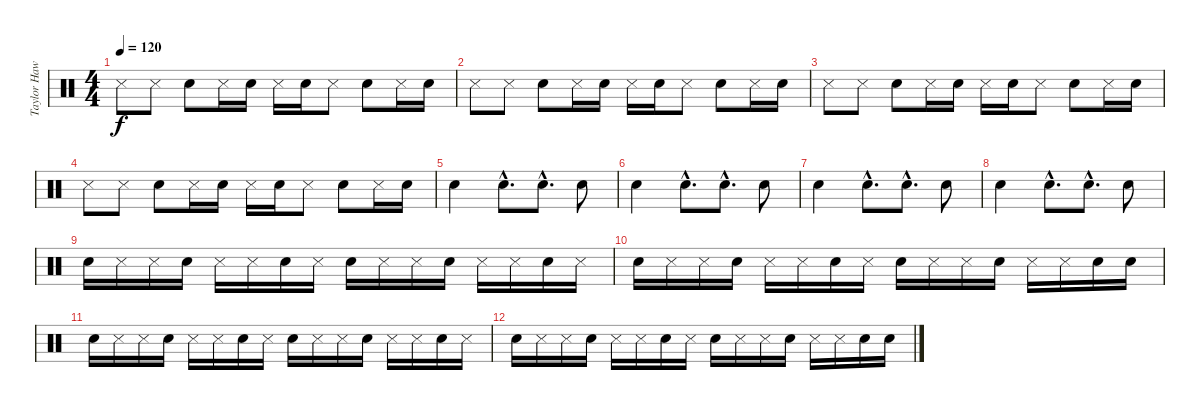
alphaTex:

\track ("Taylor Hawkins" "Taylor Haw") {instrument percussion}
\staff {score}
\articulation defaults
\ts (4 4)
\tempo 120
\clef neutral
\ks c "Metronome (hit)".8{dy f} "Metronome (hit)".8 "Metronome (bell)".8 "Metronome (hit)".16 "Metronome (bell)".16 "Metronome (hit)".16 "Metronome (bell)".16 "Metronome (hit)".8 "Metronome (bell)".8 "Metronome (hit)".16 "Metronome (bell)".16
|
"Metronome (hit)".8 "Metronome (hit)".8 "Metronome (bell)".8 "Metronome (hit)".16 "Metronome (bell)".16 "Metronome (hit)".16 "Metronome (bell)".16 "Metronome (hit)".8 "Metronome (bell)".8 "Metronome (hit)".16 "Metronome (bell)".16 |
"Metronome (hit)".8 "Metronome (hit)".8 "Metronome (bell)".8 "Metronome (hit)".16 "Metronome (bell)".16 "Metronome (hit)".16 "Metronome (bell)".16 "Metronome (hit)".8 "Metronome (bell)".8 "Metronome (hit)".16 "Metronome (bell)".16 |
"Metronome (hit)".8 "Metronome (hit)".8 "Metronome (bell)".8 "Metronome (hit)".16 "Metronome (bell)".16 "Metronome (hit)".16 "Metronome (bell)".16 "Metronome (hit)".8 "Metronome (bell)".8 "Metronome (hit)".16 "Metronome (bell)".16 |
"Metronome (bell)".2 "Metronome (bell)"{hac}.8{d} "Metronome (bell)"{hac}.8{d} "Metronome (bell)".8 |
"Metronome (bell)".2 "Metronome (bell)"{hac}.8{d} "Metronome (bell)"{hac}.8{d} "Metronome (bell)".8 |
"Metronome (bell)".2 "Metronome (bell)"{hac}.8{d} "Metronome (bell)"{hac}.8{d} "Metronome (bell)".8 |
"Metronome (bell)".2 "Metronome (bell)"{hac}.8{d} "Metronome (bell)"{hac}.8{d} "Metronome (bell)".8 |
"Metronome (bell)".16 "Metronome (hit)".16 "Metronome (hit)".16 "Metronome (bell)".16 "Metronome (hit)".16 "Metronome (hit)".16 "Metronome (bell)".16 "Metronome (hit)".16 "Metronome (bell)".16 "Metronome (hit)".16 "Metronome (hit)".16 "Metronome (bell)".16 "Metronome (hit)".16 "Metronome (hit)".16 "Metronome (bell)".16 "Metronome (hit)".16 |
"Metronome (bell)".16 "Metronome (hit)".16 "Metronome (hit)".16 "Metronome (bell)".16 "Metronome (hit)".16 "Metronome (hit)".16 "Metronome (bell)".16 "Metronome (hit)".16 "Metronome (bell)".16 "Metronome (hit)".16 "Metronome (hit)".16 "Metronome (bell)".16 "Metronome (hit)".16 "Metronome (hit)".16 "Metronome (bell)".16 "Metronome (bell)".16 |
"Metronome (bell)".16 "Metronome (hit)".16 "Metronome (hit)".16 "Metronome (bell)".16 "Metronome (hit)".16 "Metronome (hit)".16 "Metronome (bell)".16 "Metronome (hit)".16 "Metronome (bell)".16 "Metronome (hit)".16 "Metronome (hit)".16 "Metronome (bell)".16 "Metronome (hit)".16 "Metronome (hit)".16 "Metronome (bell)".16 "Metronome (hit)".16 |
"Metronome (bell)".16 "Metronome (hit)".16 "Metronome (hit)".16 "Metronome (bell)".16 "Metronome (hit)".16 "Metronome (hit)".16 "Metronome (bell)".16 "Metronome (hit)".16 "Metronome (bell)".16 "Metronome (hit)".16 "Metronome (hit)".16 "Metronome (bell)".16 "Metronome (hit)".16 "Metronome (hit)".16 "Metronome (bell)".16 "Metronome (bell)".16
